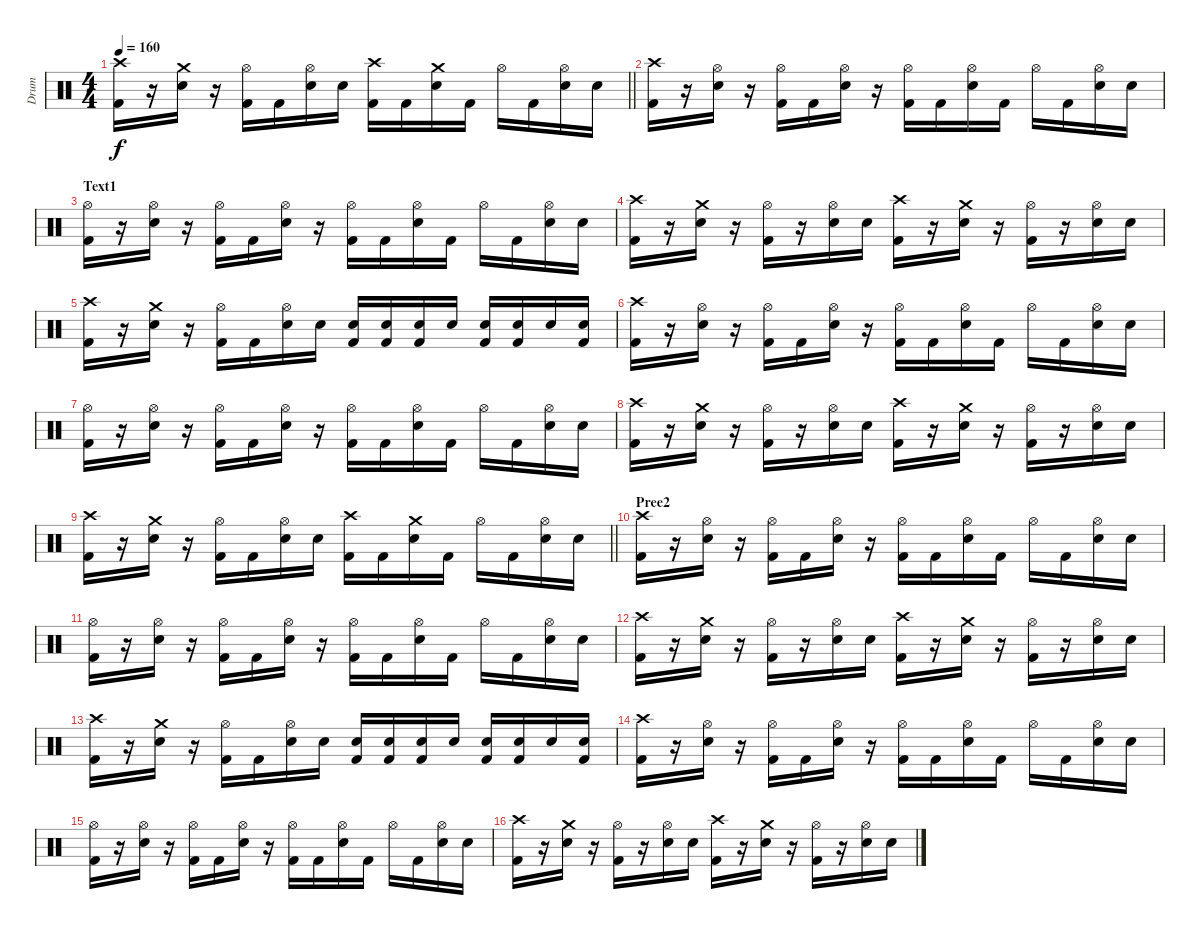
\track ("Drum" "Drum") {instrument percussion}
\staff {score}
\articulation defaults
\ts (4 4)
\tempo 160
\clef neutral
\barLineRight lightlight
\ks c
("Crash high (hit)" "Kick (hit) 2").16{dy f} r.16 ("Crash medium (hit)" "Electric Snare (hit)").16 r.16 ("Hi-Hat (open)" "Kick (hit) 2").16 "Kick (hit) 2".16 ("Hi-Hat (open)" "Electric Snare (hit)").16 "Electric Snare (hit)".16 ("Crash high (hit)" "Kick (hit) 2").16 "Kick (hit) 2".16 ("Crash medium (hit)" "Electric Snare (hit)").16 "Kick (hit) 2".16 "Hi-Hat (open)".16 "Kick (hit) 2".16 ("Hi-Hat (open)" "Electric Snare (hit)").16 "Electric Snare (hit)".16 |
("Crash high (hit)" "Kick (hit) 2").16 r.16 ("Hi-Hat (open)" "Electric Snare (hit)").16 r.16 ("Hi-Hat (open)" "Kick (hit) 2").16 "Kick (hit) 2".16 ("Hi-Hat (open)" "Electric Snare (hit)").16 r.16 ("Hi-Hat (open)" "Kick (hit) 2").16 "Kick (hit) 2".16 ("Hi-Hat (open)" "Electric Snare (hit)").16 "Kick (hit) 2".16 "Hi-Hat (open)".16 "Kick (hit) 2".16 ("Hi-Hat (open)" "Electric Snare (hit)").16 "Electric Snare (hit)".16 |
\section ("" "Text1")
("Hi-Hat (open)" "Kick (hit) 2").16 r.16 ("Hi-Hat (open)" "Electric Snare (hit)").16 r.16 ("Hi-Hat (open)" "Kick (hit) 2").16 "Kick (hit) 2".16 ("Hi-Hat (open)" "Electric Snare (hit)").16 r.16 ("Hi-Hat (open)" "Kick (hit) 2").16 "Kick (hit) 2".16 ("Hi-Hat (open)" "Electric Snare (hit)").16 "Kick (hit) 2".16 "Hi-Hat (open)".16 "Kick (hit) 2".16 ("Hi-Hat (open)" "Electric Snare (hit)").16 "Electric Snare (hit)".16 |
("Crash high (hit)" "Kick (hit) 2").16 r.16 ("Crash medium (hit)" "Electric Snare (hit)").16 r.16 ("Hi-Hat (open)" "Kick (hit) 2").16 r.16 ("Hi-Hat (open)" "Electric Snare (hit)").16 "Electric Snare (hit)".16 ("Crash high (hit)" "Kick (hit) 2").16 r.16 ("Crash medium (hit)" "Electric Snare (hit)").16 r.16 ("Hi-Hat (open)" "Kick (hit) 2").16 r.16 ("Hi-Hat (open)" "Electric Snare (hit)").16 "Electric Snare (hit)".16 |
("Crash high (hit)" "Kick (hit) 2").16 r.16 ("Crash medium (hit)" "Electric Snare (hit)").16 r.16 ("Hi-Hat (open)" "Kick (hit) 2").16 "Kick (hit) 2".16 ("Hi-Hat (open)" "Electric Snare (hit)").16 "Electric Snare (hit)".16 ("Snare (hit)" "Kick (hit) 2").16 ("Electric Snare (hit)" "Kick (hit) 2").16 ("Electric Snare (hit)" "Kick (hit) 2").16 "Electric Snare (hit)".16 ("Electric Snare (hit)" "Kick (hit) 2").16 ("Electric Snare (hit)" "Kick (hit) 2").16 "Electric Snare (hit)".16 ("Electric Snare (hit)" "Kick (hit) 2").16 |
("Crash high (hit)" "Kick (hit) 2").16 r.16 ("Hi-Hat (open)" "Electric Snare (hit)").16 r.16 ("Hi-Hat (open)" "Kick (hit) 2").16 "Kick (hit) 2".16 ("Hi-Hat (open)" "Electric Snare (hit)").16 r.16 ("Hi-Hat (open)" "Kick (hit) 2").16 "Kick (hit) 2".16 ("Hi-Hat (open)" "Electric Snare (hit)").16 "Kick (hit) 2".16 "Hi-Hat (open)".16 "Kick (hit) 2".16 ("Hi-Hat (open)" "Electric Snare (hit)").16 "Electric Snare (hit)".16 |
("Hi-Hat (open)" "Kick (hit) 2").16 r.16 ("Hi-Hat (open)" "Electric Snare (hit)").16 r.16 ("Hi-Hat (open)" "Kick (hit) 2").16 "Kick (hit) 2".16 ("Hi-Hat (open)" "Electric Snare (hit)").16 r.16 ("Hi-Hat (open)" "Kick (hit) 2").16 "Kick (hit) 2".16 ("Hi-Hat (open)" "Electric Snare (hit)").16 "Kick (hit) 2".16 "Hi-Hat (open)".16 "Kick (hit) 2".16 ("Hi-Hat (open)" "Electric Snare (hit)").16 "Electric Snare (hit)".16 |
("Crash high (hit)" "Kick (hit) 2").16 r.16 ("Crash medium (hit)" "Electric Snare (hit)").16 r.16 ("Hi-Hat (open)" "Kick (hit) 2").16 r.16 ("Hi-Hat (open)" "Electric Snare (hit)").16 "Electric Snare (hit)".16 ("Crash high (hit)" "Kick (hit) 2").16 r.16 ("Crash medium (hit)" "Electric Snare (hit)").16 r.16 ("Hi-Hat (open)" "Kick (hit) 2").16 r.16 ("Hi-Hat (open)" "Electric Snare (hit)").16 "Electric Snare (hit)".16 |
\barLineRight lightlight
("Crash high (hit)" "Kick (hit) 2").16 r.16 ("Crash medium (hit)" "Electric Snare (hit)").16 r.16 ("Hi-Hat (open)" "Kick (hit) 2").16 "Kick (hit) 2".16 ("Hi-Hat (open)" "Electric Snare (hit)").16 "Electric Snare (hit)".16 ("Crash high (hit)" "Kick (hit) 2").16 "Kick (hit) 2".16 ("Crash medium (hit)" "Electric Snare (hit)").16 "Kick (hit) 2".16 "Hi-Hat (open)".16 "Kick (hit) 2".16 ("Hi-Hat (open)" "Electric Snare (hit)").16 "Electric Snare (hit)".16 |
\section ("" "Pree2")
("Crash high (hit)" "Kick (hit) 2").16 r.16 ("Hi-Hat (open)" "Electric Snare (hit)").16 r.16 ("Hi-Hat (open)" "Kick (hit) 2").16 "Kick (hit) 2".16 ("Hi-Hat (open)" "Electric Snare (hit)").16 r.16 ("Hi-Hat (open)" "Kick (hit) 2").16 "Kick (hit) 2".16 ("Hi-Hat (open)" "Electric Snare (hit)").16 "Kick (hit) 2".16 "Hi-Hat (open)".16 "Kick (hit) 2".16 ("Hi-Hat (open)" "Electric Snare (hit)").16 "Electric Snare (hit)".16 |
("Hi-Hat (open)" "Kick (hit) 2").16 r.16 ("Hi-Hat (open)" "Electric Snare (hit)").16 r.16 ("Hi-Hat (open)" "Kick (hit) 2").16 "Kick (hit) 2".16 ("Hi-Hat (open)" "Electric Snare (hit)").16 r.16 ("Hi-Hat (open)" "Kick (hit) 2").16 "Kick (hit) 2".16 ("Hi-Hat (open)" "Electric Snare (hit)").16 "Kick (hit) 2".16 "Hi-Hat (open)".16 "Kick (hit) 2".16 ("Hi-Hat (open)" "Electric Snare (hit)").16 "Electric Snare (hit)".16 |
("Crash high (hit)" "Kick (hit) 2").16 r.16 ("Crash medium (hit)" "Electric Snare (hit)").16 r.16 ("Hi-Hat (open)" "Kick (hit) 2").16 r.16 ("Hi-Hat (open)" "Electric Snare (hit)").16 "Electric Snare (hit)".16 ("Crash high (hit)" "Kick (hit) 2").16 r.16 ("Crash medium (hit)" "Electric Snare (hit)").16 r.16 ("Hi-Hat (open)" "Kick (hit) 2").16 r.16 ("Hi-Hat (open)" "Electric Snare (hit)").16 "Electric Snare (hit)".16 |
("Crash high (hit)" "Kick (hit) 2").16 r.16 ("Crash medium (hit)" "Electric Snare (hit)").16 r.16 ("Hi-Hat (open)" "Kick (hit) 2").16 "Kick (hit) 2".16 ("Hi-Hat (open)" "Electric Snare (hit)").16 "Electric Snare (hit)".16 ("Snare (hit)" "Kick (hit) 2").16 ("Electric Snare (hit)" "Kick (hit) 2").16 ("Electric Snare (hit)" "Kick (hit) 2").16 "Electric Snare (hit)".16 ("Electric Snare (hit)" "Kick (hit) 2").16 ("Electric Snare (hit)" "Kick (hit) 2").16 "Electric Snare (hit)".16 ("Electric Snare (hit)" "Kick (hit) 2").16 |
("Crash high (hit)" "Kick (hit) 2").16 r.16 ("Hi-Hat (open)" "Electric Snare (hit)").16 r.16 ("Hi-Hat (open)" "Kick (hit) 2").16 "Kick (hit) 2".16 ("Hi-Hat (open)" "Electric Snare (hit)").16 r.16 ("Hi-Hat (open)" "Kick (hit) 2").16 "Kick (hit) 2".16 ("Hi-Hat (open)" "Electric Snare (hit)").16 "Kick (hit) 2".16 "Hi-Hat (open)".16 "Kick (hit) 2".16 ("Hi-Hat (open)" "Electric Snare (hit)").16 "Electric Snare (hit)".16 |
("Hi-Hat (open)" "Kick (hit) 2").16 r.16 ("Hi-Hat (open)" "Electric Snare (hit)").16 r.16 ("Hi-Hat (open)" "Kick (hit) 2").16 "Kick (hit) 2".16 ("Hi-Hat (open)" "Electric Snare (hit)").16 r.16 ("Hi-Hat (open)" "Kick (hit) 2").16 "Kick (hit) 2".16 ("Hi-Hat (open)" "Electric Snare (hit)").16 "Kick (hit) 2".16 "Hi-Hat (open)".16 "Kick (hit) 2".16 ("Hi-Hat (open)" "Electric Snare (hit)").16 "Electric Snare (hit)".16 |
("Crash high (hit)" "Kick (hit) 2").16 r.16 ("Crash medium (hit)" "Electric Snare (hit)").16 r.16 ("Hi-Hat (open)" "Kick (hit) 2").16 r.16 ("Hi-Hat (open)" "Electric Snare (hit)").16 "Electric Snare (hit)".16 ("Crash high (hit)" "Kick (hit) 2").16 r.16 ("Crash medium (hit)" "Electric Snare (hit)").16 r.16 ("Hi-Hat (open)" "Kick (hit) 2").16 r.16 ("Hi-Hat (open)" "Electric Snare (hit)").16 "Electric Snare (hit)".16
